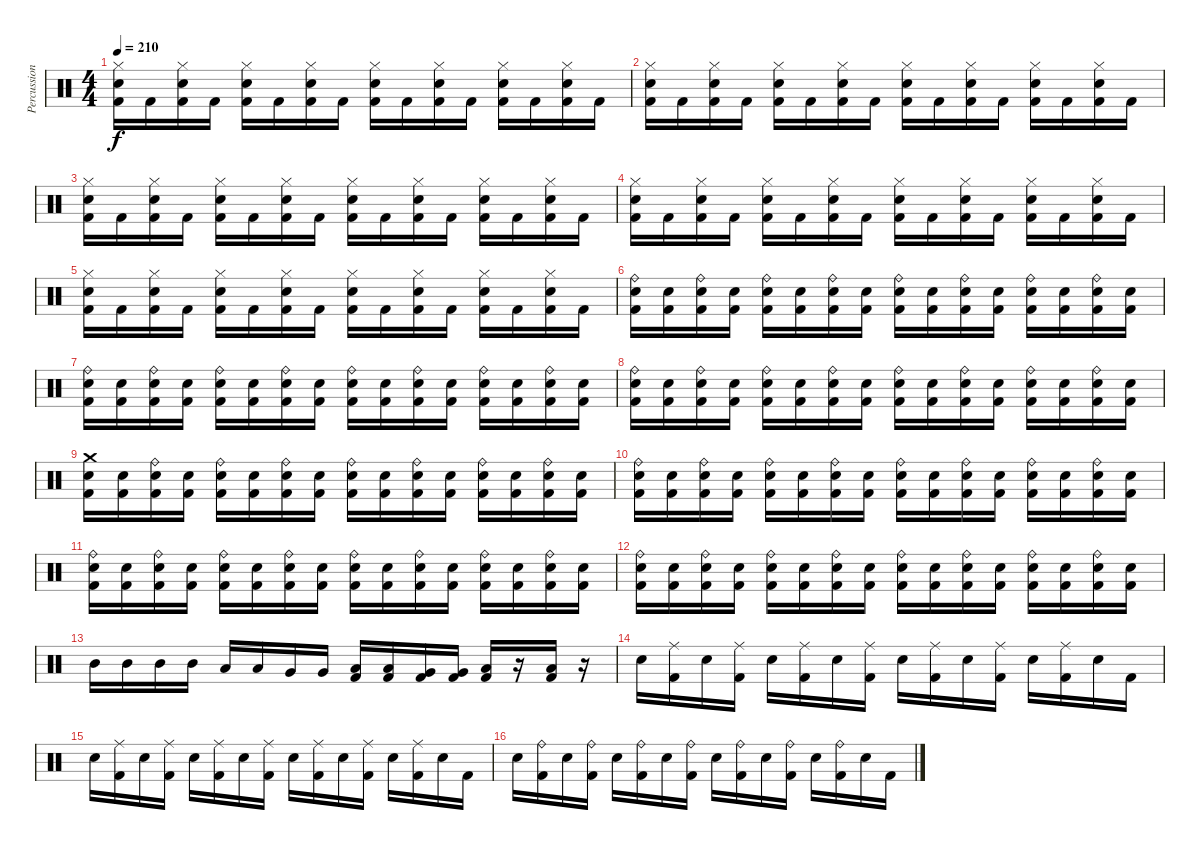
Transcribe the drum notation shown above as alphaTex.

\track ("Percussion" "Percussion") {instrument percussion}
\staff {score}
\articulation defaults
\ts (4 4)
\tempo 210
\clef neutral
\ks c
("Hi-Hat (closed)" "Snare (hit) 2" "Kick (hit) 2").16{dy f} "Kick (hit) 2".16 ("Hi-Hat (closed)" "Snare (hit) 2" "Kick (hit) 2").16 "Kick (hit) 2".16 ("Hi-Hat (closed)" "Snare (hit) 2" "Kick (hit) 2").16 "Kick (hit) 2".16 ("Hi-Hat (closed)" "Snare (hit) 2" "Kick (hit) 2").16 "Kick (hit) 2".16 ("Hi-Hat (closed)" "Snare (hit) 2" "Kick (hit) 2").16 "Kick (hit) 2".16 ("Hi-Hat (closed)" "Snare (hit) 2" "Kick (hit) 2").16 "Kick (hit) 2".16 ("Hi-Hat (closed)" "Snare (hit) 2" "Kick (hit) 2").16 "Kick (hit) 2".16 ("Hi-Hat (closed)" "Snare (hit) 2" "Kick (hit) 2").16 "Kick (hit) 2".16 |
("Hi-Hat (closed)" "Snare (hit) 2" "Kick (hit) 2").16 "Kick (hit) 2".16 ("Hi-Hat (closed)" "Snare (hit) 2" "Kick (hit) 2").16 "Kick (hit) 2".16 ("Hi-Hat (closed)" "Snare (hit) 2" "Kick (hit) 2").16 "Kick (hit) 2".16 ("Hi-Hat (closed)" "Snare (hit) 2" "Kick (hit) 2").16 "Kick (hit) 2".16 ("Hi-Hat (closed)" "Snare (hit) 2" "Kick (hit) 2").16 "Kick (hit) 2".16 ("Hi-Hat (closed)" "Snare (hit) 2" "Kick (hit) 2").16 "Kick (hit) 2".16 ("Hi-Hat (closed)" "Snare (hit) 2" "Kick (hit) 2").16 "Kick (hit) 2".16 ("Hi-Hat (closed)" "Snare (hit) 2" "Kick (hit) 2").16 "Kick (hit) 2".16 |
("Hi-Hat (closed)" "Snare (hit) 2" "Kick (hit) 2").16 "Kick (hit) 2".16 ("Hi-Hat (closed)" "Snare (hit) 2" "Kick (hit) 2").16 "Kick (hit) 2".16 ("Hi-Hat (closed)" "Snare (hit) 2" "Kick (hit) 2").16 "Kick (hit) 2".16 ("Hi-Hat (closed)" "Snare (hit) 2" "Kick (hit) 2").16 "Kick (hit) 2".16 ("Hi-Hat (closed)" "Snare (hit) 2" "Kick (hit) 2").16 "Kick (hit) 2".16 ("Hi-Hat (closed)" "Snare (hit) 2" "Kick (hit) 2").16 "Kick (hit) 2".16 ("Hi-Hat (closed)" "Snare (hit) 2" "Kick (hit) 2").16 "Kick (hit) 2".16 ("Hi-Hat (closed)" "Snare (hit) 2" "Kick (hit) 2").16 "Kick (hit) 2".16 |
("Hi-Hat (closed)" "Snare (hit) 2" "Kick (hit) 2").16 "Kick (hit) 2".16 ("Hi-Hat (closed)" "Snare (hit) 2" "Kick (hit) 2").16 "Kick (hit) 2".16 ("Hi-Hat (closed)" "Snare (hit) 2" "Kick (hit) 2").16 "Kick (hit) 2".16 ("Hi-Hat (closed)" "Snare (hit) 2" "Kick (hit) 2").16 "Kick (hit) 2".16 ("Hi-Hat (closed)" "Snare (hit) 2" "Kick (hit) 2").16 "Kick (hit) 2".16 ("Hi-Hat (closed)" "Snare (hit) 2" "Kick (hit) 2").16 "Kick (hit) 2".16 ("Hi-Hat (closed)" "Snare (hit) 2" "Kick (hit) 2").16 "Kick (hit) 2".16 ("Hi-Hat (closed)" "Snare (hit) 2" "Kick (hit) 2").16 "Kick (hit) 2".16 |
("Hi-Hat (closed)" "Snare (hit) 2" "Kick (hit) 2").16 "Kick (hit) 2".16 ("Hi-Hat (closed)" "Snare (hit) 2" "Kick (hit) 2").16 "Kick (hit) 2".16 ("Hi-Hat (closed)" "Snare (hit) 2" "Kick (hit) 2").16 "Kick (hit) 2".16 ("Hi-Hat (closed)" "Snare (hit) 2" "Kick (hit) 2").16 "Kick (hit) 2".16 ("Hi-Hat (closed)" "Snare (hit) 2" "Kick (hit) 2").16 "Kick (hit) 2".16 ("Hi-Hat (closed)" "Snare (hit) 2" "Kick (hit) 2").16 "Kick (hit) 2".16 ("Hi-Hat (closed)" "Snare (hit) 2" "Kick (hit) 2").16 "Kick (hit) 2".16 ("Hi-Hat (closed)" "Snare (hit) 2" "Kick (hit) 2").16 "Kick (hit) 2".16 |
("Ride (bell)" "Snare (hit) 2" "Kick (hit) 2").16 ("Snare (hit) 2" "Kick (hit) 2").16 ("Ride (bell)" "Snare (hit) 2" "Kick (hit) 2").16 ("Snare (hit) 2" "Kick (hit) 2").16 ("Ride (bell)" "Snare (hit) 2" "Kick (hit) 2").16 ("Snare (hit) 2" "Kick (hit) 2").16 ("Ride (bell)" "Snare (hit) 2" "Kick (hit) 2").16 ("Snare (hit) 2" "Kick (hit) 2").16 ("Ride (bell)" "Snare (hit) 2" "Kick (hit) 2").16 ("Snare (hit) 2" "Kick (hit) 2").16 ("Ride (bell)" "Snare (hit) 2" "Kick (hit) 2").16 ("Snare (hit) 2" "Kick (hit) 2").16 ("Ride (bell)" "Snare (hit) 2" "Kick (hit) 2").16 ("Snare (hit) 2" "Kick (hit) 2").16 ("Ride (bell)" "Snare (hit) 2" "Kick (hit) 2").16 ("Snare (hit) 2" "Kick (hit) 2").16 |
("Ride (bell)" "Snare (hit) 2" "Kick (hit) 2").16 ("Snare (hit) 2" "Kick (hit) 2").16 ("Ride (bell)" "Snare (hit) 2" "Kick (hit) 2").16 ("Snare (hit) 2" "Kick (hit) 2").16 ("Ride (bell)" "Snare (hit) 2" "Kick (hit) 2").16 ("Snare (hit) 2" "Kick (hit) 2").16 ("Ride (bell)" "Snare (hit) 2" "Kick (hit) 2").16 ("Snare (hit) 2" "Kick (hit) 2").16 ("Ride (bell)" "Snare (hit) 2" "Kick (hit) 2").16 ("Snare (hit) 2" "Kick (hit) 2").16 ("Ride (bell)" "Snare (hit) 2" "Kick (hit) 2").16 ("Snare (hit) 2" "Kick (hit) 2").16 ("Ride (bell)" "Snare (hit) 2" "Kick (hit) 2").16 ("Snare (hit) 2" "Kick (hit) 2").16 ("Ride (bell)" "Snare (hit) 2" "Kick (hit) 2").16 ("Snare (hit) 2" "Kick (hit) 2").16 |
("Ride (bell)" "Snare (hit) 2" "Kick (hit) 2").16 ("Snare (hit) 2" "Kick (hit) 2").16 ("Ride (bell)" "Snare (hit) 2" "Kick (hit) 2").16 ("Snare (hit) 2" "Kick (hit) 2").16 ("Ride (bell)" "Snare (hit) 2" "Kick (hit) 2").16 ("Snare (hit) 2" "Kick (hit) 2").16 ("Ride (bell)" "Snare (hit) 2" "Kick (hit) 2").16 ("Snare (hit) 2" "Kick (hit) 2").16 ("Ride (bell)" "Snare (hit) 2" "Kick (hit) 2").16 ("Snare (hit) 2" "Kick (hit) 2").16 ("Ride (bell)" "Snare (hit) 2" "Kick (hit) 2").16 ("Snare (hit) 2" "Kick (hit) 2").16 ("Ride (bell)" "Snare (hit) 2" "Kick (hit) 2").16 ("Snare (hit) 2" "Kick (hit) 2").16 ("Ride (bell)" "Snare (hit) 2" "Kick (hit) 2").16 ("Snare (hit) 2" "Kick (hit) 2").16 |
("Crash medium (hit)" "Snare (hit) 2" "Kick (hit) 2").16 ("Snare (hit) 2" "Kick (hit) 2").16 ("Ride (bell)" "Snare (hit) 2" "Kick (hit) 2").16 ("Snare (hit) 2" "Kick (hit) 2").16 ("Ride (bell)" "Snare (hit) 2" "Kick (hit) 2").16 ("Snare (hit) 2" "Kick (hit) 2").16 ("Ride (bell)" "Snare (hit) 2" "Kick (hit) 2").16 ("Snare (hit) 2" "Kick (hit) 2").16 ("Ride (bell)" "Snare (hit) 2" "Kick (hit) 2").16 ("Snare (hit) 2" "Kick (hit) 2").16 ("Ride (bell)" "Snare (hit) 2" "Kick (hit) 2").16 ("Snare (hit) 2" "Kick (hit) 2").16 ("Ride (bell)" "Snare (hit) 2" "Kick (hit) 2").16 ("Snare (hit) 2" "Kick (hit) 2").16 ("Ride (bell)" "Snare (hit) 2" "Kick (hit) 2").16 ("Snare (hit) 2" "Kick (hit) 2").16 |
("Ride (bell)" "Snare (hit) 2" "Kick (hit) 2").16 ("Snare (hit) 2" "Kick (hit) 2").16 ("Ride (bell)" "Snare (hit) 2" "Kick (hit) 2").16 ("Snare (hit) 2" "Kick (hit) 2").16 ("Ride (bell)" "Snare (hit) 2" "Kick (hit) 2").16 ("Snare (hit) 2" "Kick (hit) 2").16 ("Ride (bell)" "Snare (hit) 2" "Kick (hit) 2").16 ("Snare (hit) 2" "Kick (hit) 2").16 ("Ride (bell)" "Snare (hit) 2" "Kick (hit) 2").16 ("Snare (hit) 2" "Kick (hit) 2").16 ("Ride (bell)" "Snare (hit) 2" "Kick (hit) 2").16 ("Snare (hit) 2" "Kick (hit) 2").16 ("Ride (bell)" "Snare (hit) 2" "Kick (hit) 2").16 ("Snare (hit) 2" "Kick (hit) 2").16 ("Ride (bell)" "Snare (hit) 2" "Kick (hit) 2").16 ("Snare (hit) 2" "Kick (hit) 2").16 |
("Ride (bell)" "Snare (hit) 2" "Kick (hit) 2").16 ("Snare (hit) 2" "Kick (hit) 2").16 ("Ride (bell)" "Snare (hit) 2" "Kick (hit) 2").16 ("Snare (hit) 2" "Kick (hit) 2").16 ("Ride (bell)" "Snare (hit) 2" "Kick (hit) 2").16 ("Snare (hit) 2" "Kick (hit) 2").16 ("Ride (bell)" "Snare (hit) 2" "Kick (hit) 2").16 ("Snare (hit) 2" "Kick (hit) 2").16 ("Ride (bell)" "Snare (hit) 2" "Kick (hit) 2").16 ("Snare (hit) 2" "Kick (hit) 2").16 ("Ride (bell)" "Snare (hit) 2" "Kick (hit) 2").16 ("Snare (hit) 2" "Kick (hit) 2").16 ("Ride (bell)" "Snare (hit) 2" "Kick (hit) 2").16 ("Snare (hit) 2" "Kick (hit) 2").16 ("Ride (bell)" "Snare (hit) 2" "Kick (hit) 2").16 ("Snare (hit) 2" "Kick (hit) 2").16 |
("Ride (bell)" "Snare (hit) 2" "Kick (hit) 2").16 ("Snare (hit) 2" "Kick (hit) 2").16 ("Ride (bell)" "Snare (hit) 2" "Kick (hit) 2").16 ("Snare (hit) 2" "Kick (hit) 2").16 ("Ride (bell)" "Snare (hit) 2" "Kick (hit) 2").16 ("Snare (hit) 2" "Kick (hit) 2").16 ("Ride (bell)" "Snare (hit) 2" "Kick (hit) 2").16 ("Snare (hit) 2" "Kick (hit) 2").16 ("Ride (bell)" "Snare (hit) 2" "Kick (hit) 2").16 ("Snare (hit) 2" "Kick (hit) 2").16 ("Ride (bell)" "Snare (hit) 2" "Kick (hit) 2").16 ("Snare (hit) 2" "Kick (hit) 2").16 ("Ride (bell)" "Snare (hit) 2" "Kick (hit) 2").16 ("Snare (hit) 2" "Kick (hit) 2").16 ("Ride (bell)" "Snare (hit) 2" "Kick (hit) 2").16 ("Snare (hit) 2" "Kick (hit) 2").16 |
"Mid Tom (hit)".16 "Mid Tom (hit)".16 "Mid Tom (hit)".16 "Mid Tom (hit)".16 "Low Tom (hit)".16 "Low Tom (hit)".16 "Very Low Tom (hit)".16 "Very Low Tom (hit)".16 ("Low Tom (hit)" "Kick (hit) 2").16 ("Low Tom (hit)" "Kick (hit) 2").16 ("Very Low Tom (hit)" "Kick (hit) 2").16 ("Very Low Tom (hit)" "Kick (hit) 2").16 ("Low Floor Tom (hit)" "Kick (hit) 2").16 r.16 ("Low Floor Tom (hit)" "Kick (hit) 2").16 r.16 |
"Snare (hit) 2".16 ("Ride (middle)" "Kick (hit) 2").16 "Snare (hit) 2".16 ("Ride (middle)" "Kick (hit) 2").16 "Snare (hit) 2".16 ("Ride (middle)" "Kick (hit) 2").16 "Snare (hit) 2".16 ("Ride (middle)" "Kick (hit) 2").16 "Snare (hit) 2".16 ("Ride (middle)" "Kick (hit) 2").16 "Snare (hit) 2".16 ("Ride (middle)" "Kick (hit) 2").16 "Snare (hit) 2".16 ("Ride (middle)" "Kick (hit) 2").16 "Snare (hit) 2".16 "Kick (hit) 2".16 |
"Snare (hit) 2".16 ("Ride (middle)" "Kick (hit) 2").16 "Snare (hit) 2".16 ("Ride (middle)" "Kick (hit) 2").16 "Snare (hit) 2".16 ("Ride (middle)" "Kick (hit) 2").16 "Snare (hit) 2".16 ("Ride (middle)" "Kick (hit) 2").16 "Snare (hit) 2".16 ("Ride (middle)" "Kick (hit) 2").16 "Snare (hit) 2".16 ("Ride (middle)" "Kick (hit) 2").16 "Snare (hit) 2".16 ("Ride (middle)" "Kick (hit) 2").16 "Snare (hit) 2".16 "Kick (hit) 2".16 |
"Snare (hit) 2".16 ("Ride (bell)" "Kick (hit) 2").16 "Snare (hit) 2".16 ("Ride (bell)" "Kick (hit) 2").16 "Snare (hit) 2".16 ("Ride (bell)" "Kick (hit) 2").16 "Snare (hit) 2".16 ("Ride (bell)" "Kick (hit) 2").16 "Snare (hit) 2".16 ("Ride (bell)" "Kick (hit) 2").16 "Snare (hit) 2".16 ("Ride (bell)" "Kick (hit) 2").16 "Snare (hit) 2".16 ("Ride (bell)" "Kick (hit) 2").16 "Snare (hit) 2".16 "Kick (hit) 2".16
